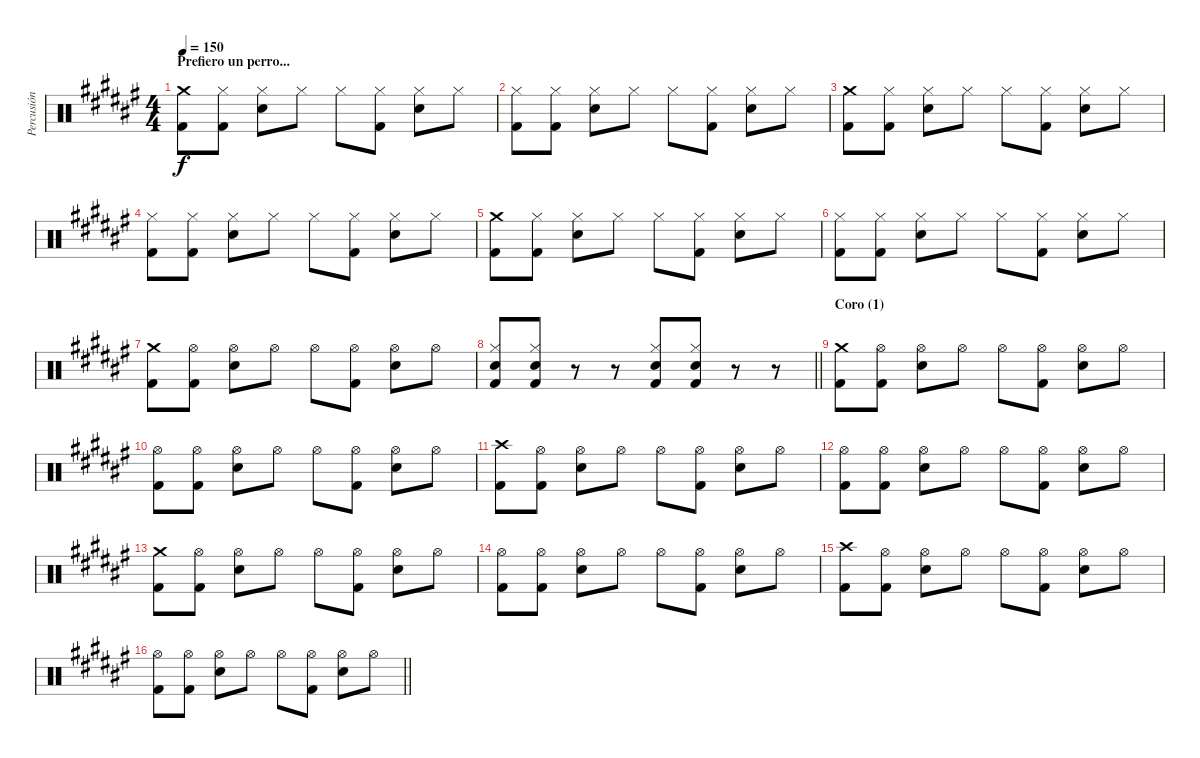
\track ("Percusión" "Percusión") {instrument percussion}
\staff {score}
\articulation defaults
\ts (4 4)
\section ("" "Prefiero un perro...")
\tempo 150
\clef neutral
\ks d#minor
("Crash medium (hit)" "Kick (hit) 2").8{dy f} ("Hi-Hat (closed)" "Kick (hit) 2").8 ("Hi-Hat (closed)" "Electric Snare (hit)").8 "Hi-Hat (closed)".8 "Hi-Hat (closed)".8 ("Hi-Hat (closed)" "Kick (hit) 2").8 ("Hi-Hat (closed)" "Electric Snare (hit)").8 "Hi-Hat (closed)".8 |
("Hi-Hat (closed)" "Kick (hit) 2").8 ("Hi-Hat (closed)" "Kick (hit) 2").8 ("Hi-Hat (closed)" "Electric Snare (hit)").8 "Hi-Hat (closed)".8 "Hi-Hat (closed)".8 ("Hi-Hat (closed)" "Kick (hit) 2").8 ("Hi-Hat (closed)" "Electric Snare (hit)").8 "Hi-Hat (closed)".8 |
("Crash medium (hit)" "Kick (hit) 2").8 ("Hi-Hat (closed)" "Kick (hit) 2").8 ("Hi-Hat (closed)" "Electric Snare (hit)").8 "Hi-Hat (closed)".8 "Hi-Hat (closed)".8 ("Hi-Hat (closed)" "Kick (hit) 2").8 ("Hi-Hat (closed)" "Electric Snare (hit)").8 "Hi-Hat (closed)".8 |
("Hi-Hat (closed)" "Kick (hit) 2").8 ("Hi-Hat (closed)" "Kick (hit) 2").8 ("Hi-Hat (closed)" "Electric Snare (hit)").8 "Hi-Hat (closed)".8 "Hi-Hat (closed)".8 ("Hi-Hat (closed)" "Kick (hit) 2").8 ("Hi-Hat (closed)" "Electric Snare (hit)").8 "Hi-Hat (closed)".8 |
("Crash medium (hit)" "Kick (hit) 2").8 ("Hi-Hat (closed)" "Kick (hit) 2").8 ("Hi-Hat (closed)" "Electric Snare (hit)").8 "Hi-Hat (closed)".8 "Hi-Hat (closed)".8 ("Hi-Hat (closed)" "Kick (hit) 2").8 ("Hi-Hat (closed)" "Electric Snare (hit)").8 "Hi-Hat (closed)".8 |
("Hi-Hat (closed)" "Kick (hit) 2").8 ("Hi-Hat (closed)" "Kick (hit) 2").8 ("Hi-Hat (closed)" "Electric Snare (hit)").8 "Hi-Hat (closed)".8 "Hi-Hat (closed)".8 ("Hi-Hat (closed)" "Kick (hit) 2").8 ("Hi-Hat (closed)" "Electric Snare (hit)").8 "Hi-Hat (closed)".8 |
("Crash medium (hit)" "Kick (hit) 2").8 ("Hi-Hat (open)" "Kick (hit) 2").8 ("Hi-Hat (open)" "Electric Snare (hit)").8 "Hi-Hat (open)".8 "Hi-Hat (open)".8 ("Hi-Hat (open)" "Kick (hit) 2").8 ("Hi-Hat (open)" "Electric Snare (hit)").8 "Hi-Hat (open)".8 |
\barLineRight lightlight
("Hi-Hat (closed)" "Kick (hit) 2" "Electric Snare (hit)").8 ("Hi-Hat (closed)" "Kick (hit) 2" "Electric Snare (hit)").8 r.8 r.8 ("Hi-Hat (closed)" "Kick (hit) 2" "Electric Snare (hit)").8 ("Hi-Hat (closed)" "Kick (hit) 2" "Electric Snare (hit)").8 r.8 r.8 |
\section ("" "Coro (1)")
("Crash medium (hit)" "Kick (hit) 2").8 ("Hi-Hat (open)" "Kick (hit) 2").8 ("Hi-Hat (open)" "Electric Snare (hit)").8 "Hi-Hat (open)".8 "Hi-Hat (open)".8 ("Hi-Hat (open)" "Kick (hit) 2").8 ("Hi-Hat (open)" "Electric Snare (hit)").8 "Hi-Hat (open)".8 |
("Hi-Hat (open)" "Kick (hit) 2").8 ("Hi-Hat (open)" "Kick (hit) 2").8 ("Hi-Hat (open)" "Electric Snare (hit)").8 "Hi-Hat (open)".8 "Hi-Hat (open)".8 ("Hi-Hat (open)" "Kick (hit) 2").8 ("Hi-Hat (open)" "Electric Snare (hit)").8 "Hi-Hat (open)".8 |
("Crash high (hit)" "Kick (hit) 2").8 ("Hi-Hat (open)" "Kick (hit) 2").8 ("Hi-Hat (open)" "Electric Snare (hit)").8 "Hi-Hat (open)".8 "Hi-Hat (open)".8 ("Hi-Hat (open)" "Kick (hit) 2").8 ("Hi-Hat (open)" "Electric Snare (hit)").8 "Hi-Hat (open)".8 |
("Hi-Hat (open)" "Kick (hit) 2").8 ("Hi-Hat (open)" "Kick (hit) 2").8 ("Hi-Hat (open)" "Electric Snare (hit)").8 "Hi-Hat (open)".8 "Hi-Hat (open)".8 ("Hi-Hat (open)" "Kick (hit) 2").8 ("Hi-Hat (open)" "Electric Snare (hit)").8 "Hi-Hat (open)".8 |
("Crash medium (hit)" "Kick (hit) 2").8 ("Hi-Hat (open)" "Kick (hit) 2").8 ("Hi-Hat (open)" "Electric Snare (hit)").8 "Hi-Hat (open)".8 "Hi-Hat (open)".8 ("Hi-Hat (open)" "Kick (hit) 2").8 ("Hi-Hat (open)" "Electric Snare (hit)").8 "Hi-Hat (open)".8 |
("Hi-Hat (open)" "Kick (hit) 2").8 ("Hi-Hat (open)" "Kick (hit) 2").8 ("Hi-Hat (open)" "Electric Snare (hit)").8 "Hi-Hat (open)".8 "Hi-Hat (open)".8 ("Hi-Hat (open)" "Kick (hit) 2").8 ("Hi-Hat (open)" "Electric Snare (hit)").8 "Hi-Hat (open)".8 |
("Crash high (hit)" "Kick (hit) 2").8 ("Hi-Hat (open)" "Kick (hit) 2").8 ("Hi-Hat (open)" "Electric Snare (hit)").8 "Hi-Hat (open)".8 "Hi-Hat (open)".8 ("Hi-Hat (open)" "Kick (hit) 2").8 ("Hi-Hat (open)" "Electric Snare (hit)").8 "Hi-Hat (open)".8 |
\barLineRight lightlight
("Hi-Hat (open)" "Kick (hit) 2").8 ("Hi-Hat (open)" "Kick (hit) 2").8 ("Hi-Hat (open)" "Electric Snare (hit)").8 "Hi-Hat (open)".8 "Hi-Hat (open)".8 ("Hi-Hat (open)" "Kick (hit) 2").8 ("Hi-Hat (open)" "Electric Snare (hit)").8 "Hi-Hat (open)".8
